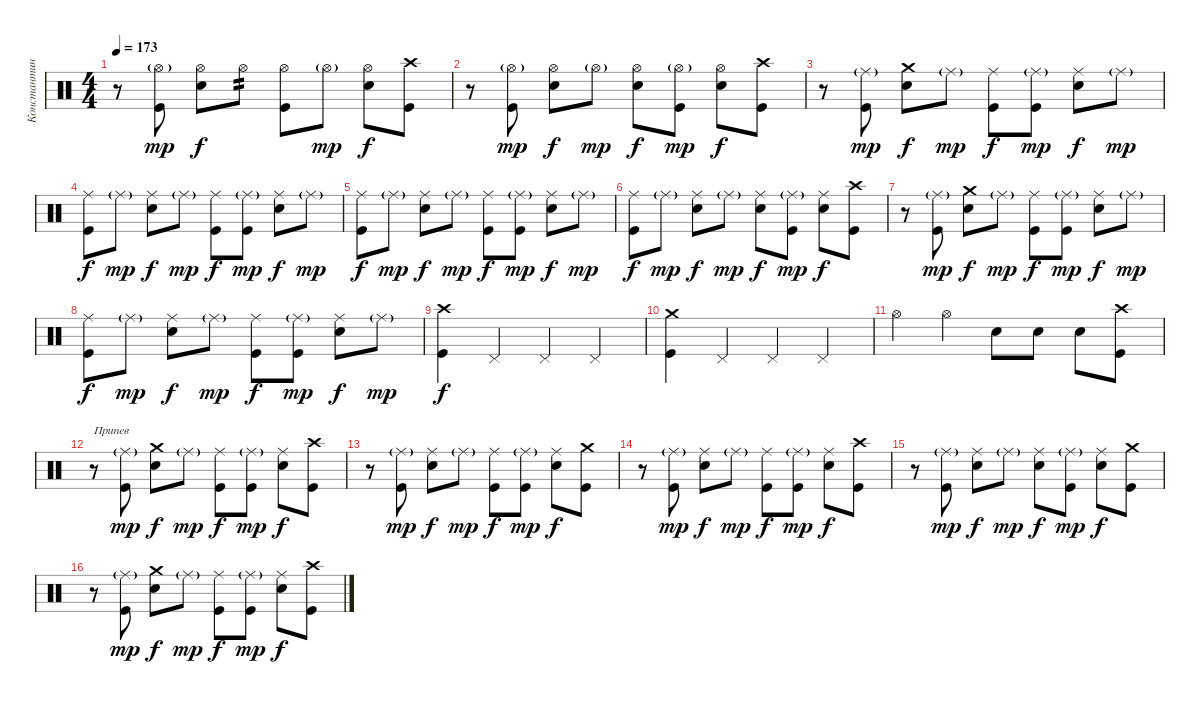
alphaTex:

\track ("Константин Дементьев" "Константин") {instrument percussion}
\staff {score}
\articulation defaults
\ts (4 4)
\tempo 173
\clef neutral
\ks c
r.8{dy f} ("Hi-Hat (open)"{g} "Kick (hit)").8{dy mp} ("Hi-Hat (open)" "Electric Snare (hit)").8{dy f} "Hi-Hat (open)".8{tp 2} ("Hi-Hat (open)" "Kick (hit)").8 "Hi-Hat (open)"{g}.8{dy mp} ("Hi-Hat (open)" "Electric Snare (hit)").8{dy f} ("Crash high (hit)" "Kick (hit)").8 |
r.8 ("Hi-Hat (open)"{g} "Kick (hit)").8{dy mp} ("Hi-Hat (open)" "Electric Snare (hit)").8{dy f} "Hi-Hat (open)"{g}.8{dy mp} ("Hi-Hat (open)" "Electric Snare (hit)").8{dy f} ("Hi-Hat (open)"{g} "Kick (hit)").8{dy mp} ("Hi-Hat (open)" "Electric Snare (hit)").8{dy f} ("Crash high (hit)" "Kick (hit)").8 |
r.8 ("Ride (middle)"{g} "Kick (hit)").8{dy mp} ("Crash medium (hit)" "Electric Snare (hit)").8{dy f} "Ride (middle)"{g}.8{dy mp} ("Ride (middle)" "Kick (hit)").8{dy f} ("Ride (middle)"{g} "Kick (hit)").8{dy mp} ("Ride (middle)" "Electric Snare (hit)").8{dy f} "Ride (middle)"{g}.8{dy mp} |
("Ride (middle)" "Kick (hit)").8{dy f} "Ride (middle)"{g}.8{dy mp} ("Ride (middle)" "Electric Snare (hit)").8{dy f} "Ride (middle)"{g}.8{dy mp} ("Ride (middle)" "Kick (hit)").8{dy f} ("Ride (middle)"{g} "Kick (hit)").8{dy mp} ("Ride (middle)" "Electric Snare (hit)").8{dy f} "Ride (middle)"{g}.8{dy mp} |
("Ride (middle)" "Kick (hit)").8{dy f} "Ride (middle)"{g}.8{dy mp} ("Ride (middle)" "Electric Snare (hit)").8{dy f} "Ride (middle)"{g}.8{dy mp} ("Ride (middle)" "Kick (hit)").8{dy f} ("Ride (middle)"{g} "Kick (hit)").8{dy mp} ("Ride (middle)" "Electric Snare (hit)").8{dy f} "Ride (middle)"{g}.8{dy mp} |
("Ride (middle)" "Kick (hit)").8{dy f} "Ride (middle)"{g}.8{dy mp} ("Ride (middle)" "Electric Snare (hit)").8{dy f} "Ride (middle)"{g}.8{dy mp} ("Ride (middle)" "Electric Snare (hit)").8{dy f} ("Ride (middle)"{g} "Kick (hit)").8{dy mp} ("Ride (middle)" "Electric Snare (hit)").8{dy f} ("Crash high (hit)" "Kick (hit)").8 |
r.8 ("Ride (middle)"{g} "Kick (hit)").8{dy mp} ("Crash medium (hit)" "Electric Snare (hit)").8{dy f} "Ride (middle)"{g}.8{dy mp} ("Ride (middle)" "Kick (hit)").8{dy f} ("Ride (middle)"{g} "Kick (hit)").8{dy mp} ("Ride (middle)" "Electric Snare (hit)").8{dy f} "Ride (middle)"{g}.8{dy mp} |
("Ride (middle)" "Kick (hit)").8{dy f} "Ride (middle)"{g}.8{dy mp} ("Ride (middle)" "Electric Snare (hit)").8{dy f} "Ride (middle)"{g}.8{dy mp} ("Ride (middle)" "Kick (hit)").8{dy f} ("Ride (middle)"{g} "Kick (hit)").8{dy mp} ("Ride (middle)" "Electric Snare (hit)").8{dy f} "Ride (middle)"{g}.8{dy mp} |
("Crash high (hit)" "Kick (hit)").4{dy f} "Pedal Hi-Hat (hit)".4 "Pedal Hi-Hat (hit)".4 "Pedal Hi-Hat (hit)".4 |
("Crash medium (hit)" "Kick (hit)").4 "Pedal Hi-Hat (hit)".4 "Pedal Hi-Hat (hit)".4 "Pedal Hi-Hat (hit)".4 |
"Hi-Hat (open)".4 "Hi-Hat (open)".4 "Electric Snare (hit)".8 "Electric Snare (hit)".8 "Electric Snare (hit)".8 ("Crash high (hit)" "Kick (hit)").8 |
r.8{txt "Припев"} ("Ride (middle)"{g} "Kick (hit)").8{dy mp} ("Crash medium (hit)" "Electric Snare (hit)").8{dy f} "Ride (middle)"{g}.8{dy mp} ("Ride (middle)" "Kick (hit)").8{dy f} ("Ride (middle)"{g} "Kick (hit)").8{dy mp} ("Ride (middle)" "Electric Snare (hit)").8{dy f} ("Crash high (hit)" "Kick (hit)").8 |
r.8 ("Ride (middle)"{g} "Kick (hit)").8{dy mp} ("Ride (middle)" "Electric Snare (hit)").8{dy f} "Ride (middle)"{g}.8{dy mp} ("Ride (middle)" "Kick (hit)").8{dy f} ("Ride (middle)"{g} "Kick (hit)").8{dy mp} ("Ride (middle)" "Electric Snare (hit)").8{dy f} ("Crash medium (hit)" "Kick (hit)").8 |
r.8 ("Ride (middle)"{g} "Kick (hit)").8{dy mp} ("Ride (middle)" "Electric Snare (hit)").8{dy f} "Ride (middle)"{g}.8{dy mp} ("Ride (middle)" "Kick (hit)").8{dy f} ("Ride (middle)"{g} "Kick (hit)").8{dy mp} ("Ride (middle)" "Electric Snare (hit)").8{dy f} ("Crash high (hit)" "Kick (hit)").8 |
r.8 ("Ride (middle)"{g} "Kick (hit)").8{dy mp} ("Ride (middle)" "Electric Snare (hit)").8{dy f} "Ride (middle)"{g}.8{dy mp} ("Ride (middle)" "Electric Snare (hit)").8{dy f} ("Ride (middle)"{g} "Kick (hit)").8{dy mp} ("Ride (middle)" "Electric Snare (hit)").8{dy f} ("Crash medium (hit)" "Kick (hit)").8 |
r.8 ("Ride (middle)"{g} "Kick (hit)").8{dy mp} ("Crash medium (hit)" "Electric Snare (hit)").8{dy f} "Ride (middle)"{g}.8{dy mp} ("Ride (middle)" "Kick (hit)").8{dy f} ("Ride (middle)"{g} "Kick (hit)").8{dy mp} ("Ride (middle)" "Electric Snare (hit)").8{dy f} ("Crash high (hit)" "Kick (hit)").8
